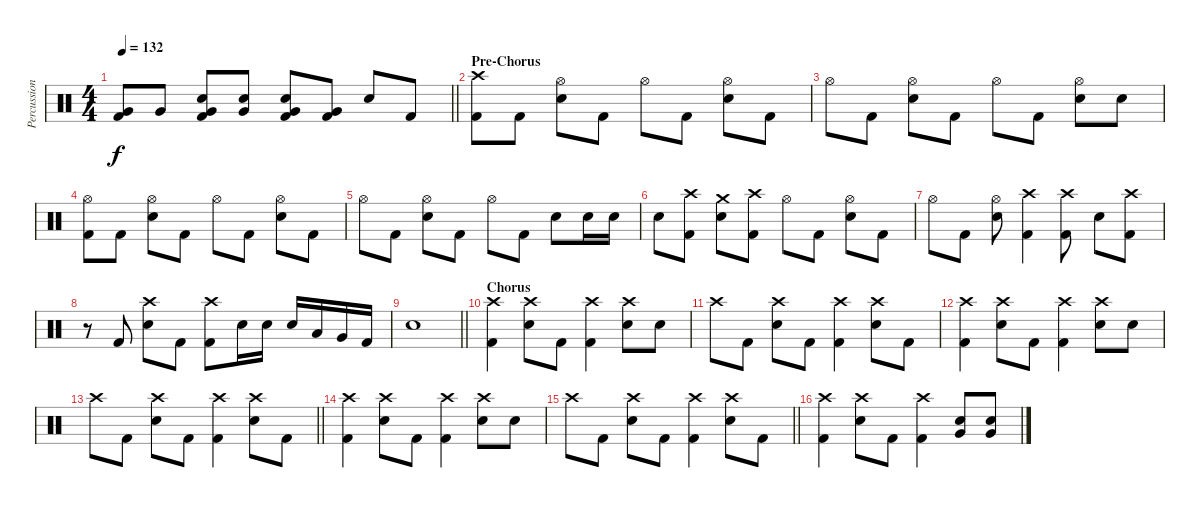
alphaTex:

\track ("Percussion" "Percussion") {instrument percussion}
\staff {score}
\articulation defaults
\ts (4 4)
\tempo 132
\clef neutral
\barLineRight lightlight
\ks c
("Very Low Tom (hit)" "Kick (hit) 2").8{dy f} "Very Low Tom (hit)".8 ("Snare (hit) 2" "Very Low Tom (hit)" "Kick (hit) 2").8 ("Snare (hit) 2" "Very Low Tom (hit)").8 ("Snare (hit) 2" "Very Low Tom (hit)" "Kick (hit) 2").8 ("Very Low Tom (hit)" "Kick (hit) 2").8 "Snare (hit) 2".8 "Kick (hit) 2".8 |
\section ("" "Pre-Chorus")
("Crash high (hit)" "Kick (hit) 2").8 "Kick (hit) 2".8 ("Hi-Hat (open)" "Snare (hit) 2").8 "Kick (hit) 2".8 "Hi-Hat (open)".8 "Kick (hit) 2".8 ("Hi-Hat (open)" "Snare (hit) 2").8 "Kick (hit) 2".8 |
"Hi-Hat (open)".8 "Kick (hit) 2".8 ("Hi-Hat (open)" "Snare (hit) 2").8 "Kick (hit) 2".8 "Hi-Hat (open)".8 "Kick (hit) 2".8 ("Hi-Hat (open)" "Snare (hit) 2").8 "Snare (hit) 2".8 |
("Hi-Hat (open)" "Kick (hit) 2").8 "Kick (hit) 2".8 ("Hi-Hat (open)" "Snare (hit) 2").8 "Kick (hit) 2".8 "Hi-Hat (open)".8 "Kick (hit) 2".8 ("Hi-Hat (open)" "Snare (hit) 2").8 "Kick (hit) 2".8 |
"Hi-Hat (open)".8 "Kick (hit) 2".8 ("Hi-Hat (open)" "Snare (hit) 2").8 "Kick (hit) 2".8 "Hi-Hat (open)".8 "Kick (hit) 2".8 "Snare (hit) 2".8 "Snare (hit) 2".16 "Snare (hit) 2".16 |
"Snare (hit) 2".8 ("Crash high (hit)" "Kick (hit) 2").8 ("Crash medium (hit)" "Snare (hit) 2").8 ("Crash high (hit)" "Kick (hit) 2").8 "Hi-Hat (open)".8 "Kick (hit) 2".8 ("Hi-Hat (open)" "Snare (hit) 2").8 "Kick (hit) 2".8 |
"Hi-Hat (open)".8 "Kick (hit) 2".8 ("Hi-Hat (open)" "Snare (hit) 2").8 ("Crash high (hit)" "Kick (hit) 2").4 ("Crash high (hit)" "Kick (hit) 2").8 "Snare (hit) 2".8 ("Crash high (hit)" "Kick (hit) 2").8 |
r.8 "Kick (hit) 2".8 ("Crash high (hit)" "Snare (hit) 2").8 "Kick (hit) 2".8 ("Crash high (hit)" "Kick (hit) 2").8 "Snare (hit) 2".16 "Snare (hit) 2".16 "Snare (hit) 2".16 "Low Tom (hit)".16 "Very Low Tom (hit)".16 "Kick (hit) 2".16 |
\barLineRight lightlight "Snare (hit) 2".1
|
\section ("" "Chorus")
("Crash high (hit)" "Kick (hit) 2").4 ("Crash high (hit)" "Snare (hit) 2").8 "Kick (hit) 2".8 ("Crash high (hit)" "Kick (hit) 2").4 ("Crash high (hit)" "Snare (hit) 2").8 "Snare (hit) 2".8 |
"Crash high (hit)".8 "Kick (hit) 2".8 ("Crash high (hit)" "Snare (hit) 2").8 "Kick (hit) 2".8 ("Crash high (hit)" "Kick (hit) 2").4 ("Crash high (hit)" "Snare (hit) 2").8 "Kick (hit) 2".8 |
("Crash high (hit)" "Kick (hit) 2").4 ("Crash high (hit)" "Snare (hit) 2").8 "Kick (hit) 2".8 ("Crash high (hit)" "Kick (hit) 2").4 ("Crash high (hit)" "Snare (hit) 2").8 "Snare (hit) 2".8 |
\barLineRight lightlight "Crash high (hit)".8 "Kick (hit) 2".8
("Crash high (hit)" "Snare (hit) 2").8 "Kick (hit) 2".8 ("Crash high (hit)" "Kick (hit) 2").4 ("Crash high (hit)" "Snare (hit) 2").8 "Kick (hit) 2".8 |
("Crash high (hit)" "Kick (hit) 2").4 ("Crash high (hit)" "Snare (hit) 2").8 "Kick (hit) 2".8 ("Crash high (hit)" "Kick (hit) 2").4 ("Crash high (hit)" "Snare (hit) 2").8 "Snare (hit) 2".8 |
\barLineRight lightlight "Crash high (hit)".8 "Kick (hit) 2".8
("Crash high (hit)" "Snare (hit) 2").8 "Kick (hit) 2".8 ("Crash high (hit)" "Kick (hit) 2").4 ("Crash high (hit)" "Snare (hit) 2").8 "Kick (hit) 2".8 |
("Crash high (hit)" "Kick (hit) 2").4 ("Crash high (hit)" "Snare (hit) 2").8 "Kick (hit) 2".8 ("Crash high (hit)" "Kick (hit) 2").4 ("Snare (hit) 2" "Very Low Tom (hit)").8 ("Snare (hit) 2" "Very Low Tom (hit)").8
